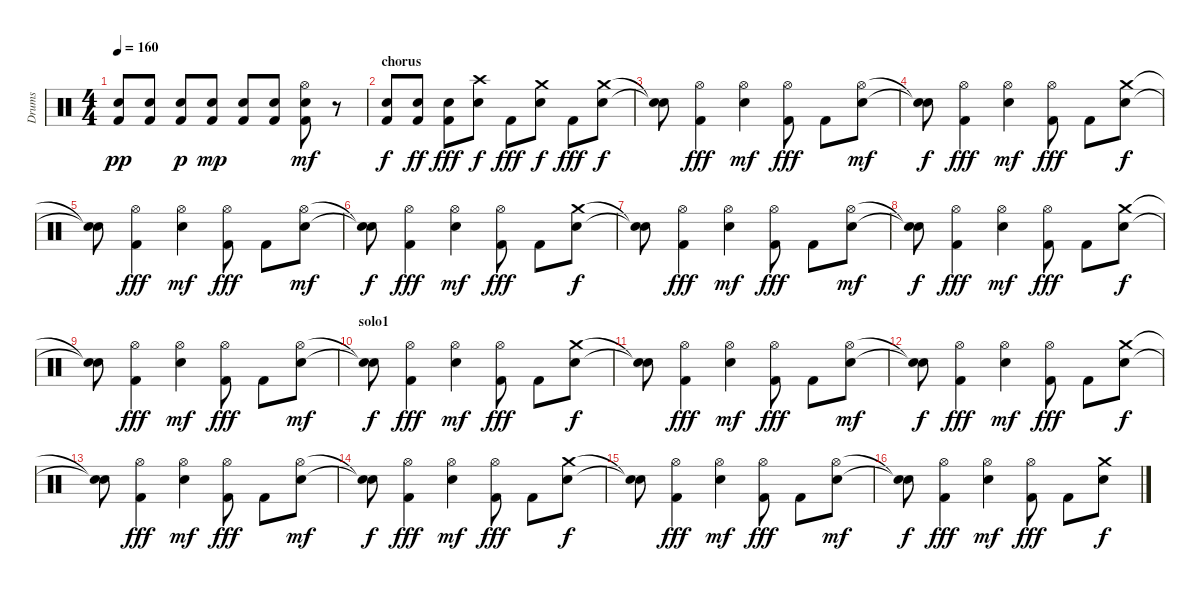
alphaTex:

\track ("Drums" "Drums") {instrument percussion}
\staff {score}
\articulation defaults
\ts (4 4)
\tempo 160
\clef neutral
\ks c
("Electric Snare (hit)" "Kick (hit) 2").8{dy pp} ("Electric Snare (hit)" "Kick (hit) 2").8 ("Electric Snare (hit)" "Kick (hit) 2").8{dy p} ("Electric Snare (hit)" "Kick (hit) 2").8{dy mp} ("Electric Snare (hit)" "Kick (hit) 2").8 ("Electric Snare (hit)" "Kick (hit) 2").8 ("Hi-Hat (open)" "Electric Snare (hit)" "Kick (hit) 2").8{dy mf} r.8 |
\section ("" "chorus")
("Kick (hit) 2" "Electric Snare (hit)").8{dy f} ("Kick (hit) 2" "Electric Snare (hit)").8{dy ff} ("Kick (hit) 2" "Electric Snare (hit)").8{dy fff} ("Crash high (hit)" "Electric Snare (hit)").8{dy f} "Kick (hit) 2".8{dy fff} ("Crash medium (hit)" "Electric Snare (hit)").8{dy f} "Kick (hit) 2".8{dy fff} ("Crash medium (hit)" "Electric Snare (hit)").8{dy f} |
("Snare (hit)"{t} "Snare (hit)"{t}).8 ("Hi-Hat (open)" "Kick (hit) 2").4{dy fff} ("Hi-Hat (open)" "Electric Snare (hit)").4{dy mf} ("Hi-Hat (open)" "Kick (hit) 2").8{dy fff} "Kick (hit) 2".8 ("Hi-Hat (open)" "Electric Snare (hit)").8{dy mf} |
("Snare (hit)"{t} "Snare (hit)"{t}).8{dy f} ("Hi-Hat (open)" "Kick (hit) 2").4{dy fff} ("Hi-Hat (open)" "Electric Snare (hit)").4{dy mf} ("Hi-Hat (open)" "Kick (hit) 2").8{dy fff} "Kick (hit) 2".8 ("Crash medium (hit)" "Electric Snare (hit)").8{dy f} |
("Snare (hit)"{t} "Snare (hit)"{t}).8 ("Hi-Hat (open)" "Kick (hit) 2").4{dy fff} ("Hi-Hat (open)" "Electric Snare (hit)").4{dy mf} ("Hi-Hat (open)" "Kick (hit) 2").8{dy fff} "Kick (hit) 2".8 ("Hi-Hat (open)" "Electric Snare (hit)").8{dy mf} |
("Snare (hit)"{t} "Snare (hit)"{t}).8{dy f} ("Hi-Hat (open)" "Kick (hit) 2").4{dy fff} ("Hi-Hat (open)" "Electric Snare (hit)").4{dy mf} ("Hi-Hat (open)" "Kick (hit) 2").8{dy fff} "Kick (hit) 2".8 ("Crash medium (hit)" "Electric Snare (hit)").8{dy f} |
("Snare (hit)"{t} "Snare (hit)"{t}).8 ("Hi-Hat (open)" "Kick (hit) 2").4{dy fff} ("Hi-Hat (open)" "Electric Snare (hit)").4{dy mf} ("Hi-Hat (open)" "Kick (hit) 2").8{dy fff} "Kick (hit) 2".8 ("Hi-Hat (open)" "Electric Snare (hit)").8{dy mf} |
("Snare (hit)"{t} "Snare (hit)"{t}).8{dy f} ("Hi-Hat (open)" "Kick (hit) 2").4{dy fff} ("Hi-Hat (open)" "Electric Snare (hit)").4{dy mf} ("Hi-Hat (open)" "Kick (hit) 2").8{dy fff} "Kick (hit) 2".8 ("Crash medium (hit)" "Electric Snare (hit)").8{dy f} |
("Snare (hit)"{t} "Snare (hit)"{t}).8 ("Hi-Hat (open)" "Kick (hit) 2").4{dy fff} ("Hi-Hat (open)" "Electric Snare (hit)").4{dy mf} ("Hi-Hat (open)" "Kick (hit) 2").8{dy fff} "Kick (hit) 2".8 ("Hi-Hat (open)" "Electric Snare (hit)").8{dy mf} |
\section ("" "solo1")
("Snare (hit)"{t} "Snare (hit)"{t}).8{dy f} ("Hi-Hat (open)" "Kick (hit) 2").4{dy fff} ("Hi-Hat (open)" "Electric Snare (hit)").4{dy mf} ("Hi-Hat (open)" "Kick (hit) 2").8{dy fff} "Kick (hit) 2".8 ("Crash medium (hit)" "Electric Snare (hit)").8{dy f} |
("Snare (hit)"{t} "Snare (hit)"{t}).8 ("Hi-Hat (open)" "Kick (hit) 2").4{dy fff} ("Hi-Hat (open)" "Electric Snare (hit)").4{dy mf} ("Hi-Hat (open)" "Kick (hit) 2").8{dy fff} "Kick (hit) 2".8 ("Hi-Hat (open)" "Electric Snare (hit)").8{dy mf} |
("Snare (hit)"{t} "Snare (hit)"{t}).8{dy f} ("Hi-Hat (open)" "Kick (hit) 2").4{dy fff} ("Hi-Hat (open)" "Electric Snare (hit)").4{dy mf} ("Hi-Hat (open)" "Kick (hit) 2").8{dy fff} "Kick (hit) 2".8 ("Crash medium (hit)" "Electric Snare (hit)").8{dy f} |
("Snare (hit)"{t} "Snare (hit)"{t}).8 ("Hi-Hat (open)" "Kick (hit) 2").4{dy fff} ("Hi-Hat (open)" "Electric Snare (hit)").4{dy mf} ("Hi-Hat (open)" "Kick (hit) 2").8{dy fff} "Kick (hit) 2".8 ("Hi-Hat (open)" "Electric Snare (hit)").8{dy mf} |
("Snare (hit)"{t} "Snare (hit)"{t}).8{dy f} ("Hi-Hat (open)" "Kick (hit) 2").4{dy fff} ("Hi-Hat (open)" "Electric Snare (hit)").4{dy mf} ("Hi-Hat (open)" "Kick (hit) 2").8{dy fff} "Kick (hit) 2".8 ("Crash medium (hit)" "Electric Snare (hit)").8{dy f} |
("Snare (hit)"{t} "Snare (hit)"{t}).8 ("Hi-Hat (open)" "Kick (hit) 2").4{dy fff} ("Hi-Hat (open)" "Electric Snare (hit)").4{dy mf} ("Hi-Hat (open)" "Kick (hit) 2").8{dy fff} "Kick (hit) 2".8 ("Hi-Hat (open)" "Electric Snare (hit)").8{dy mf} |
("Snare (hit)"{t} "Snare (hit)"{t}).8{dy f} ("Hi-Hat (open)" "Kick (hit) 2").4{dy fff} ("Hi-Hat (open)" "Electric Snare (hit)").4{dy mf} ("Hi-Hat (open)" "Kick (hit) 2").8{dy fff} "Kick (hit) 2".8 ("Crash medium (hit)" "Electric Snare (hit)").8{dy f}
